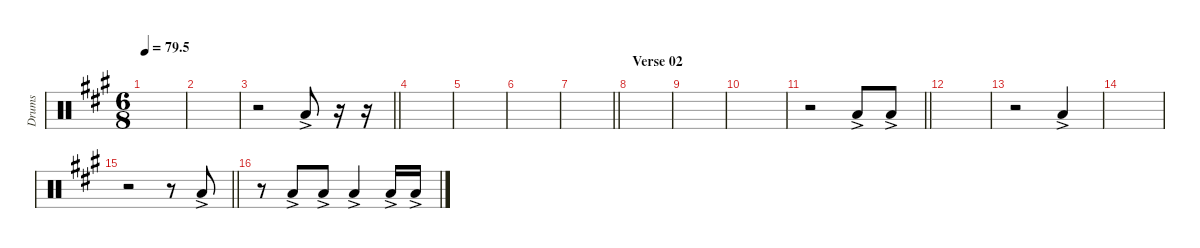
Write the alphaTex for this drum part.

\defaultSystemsLayout 4
\hideDynamics
\bracketExtendMode nobrackets
\otherSystemsTrackNameOrientation horizontal
\track ("Tom 03" "Drums") {instrument percussion}
\staff {score}
\articulation defaults
\ts (6 8)
\tempo
79.5
\accidentals auto
\clef neutral
\ottava regular
\simile none
\scale
0.333333
\ks a
|
\scale
0.333333 |
\scale
0.333333
\barLineRight lightlight
r.2 "Low Tom (hit)"{ac acc forcenatural}.8 r.16 r.16 |
\scale
0.333333 |
\scale
0.333333 |
\scale
0.333333 |
\scale
0.333333
\barLineRight lightlight
|
\section ("" "Verse 02")
\scale
0.333333 |
\scale
0.333333 |
\scale
0.333333 |
\scale
0.333333
\barLineRight lightlight
r.2 "Low Tom (hit)"{ac acc forcenatural}.8 "Low Tom (hit)"{ac acc forcenatural}.8 |
\scale
0.333333 |
\scale
0.333333 r.2 "Low Tom (hit)"{ac acc forcenatural}.4 |
\scale
0.333333 |
\scale
0.333333
\barLineRight lightlight
r.2 r.8 "Low Tom (hit)"{ac acc forcenatural}.8 |
\scale
0.333333 r.8 "Low Tom (hit)"{ac acc forcenatural}.8 "Low Tom (hit)"{ac acc forcenatural}.8 "Low Tom (hit)"{ac acc forcenatural}.4 "Low Tom (hit)"{ac acc forcenatural}.16 "Low Tom (hit)"{ac acc forcenatural}.16
